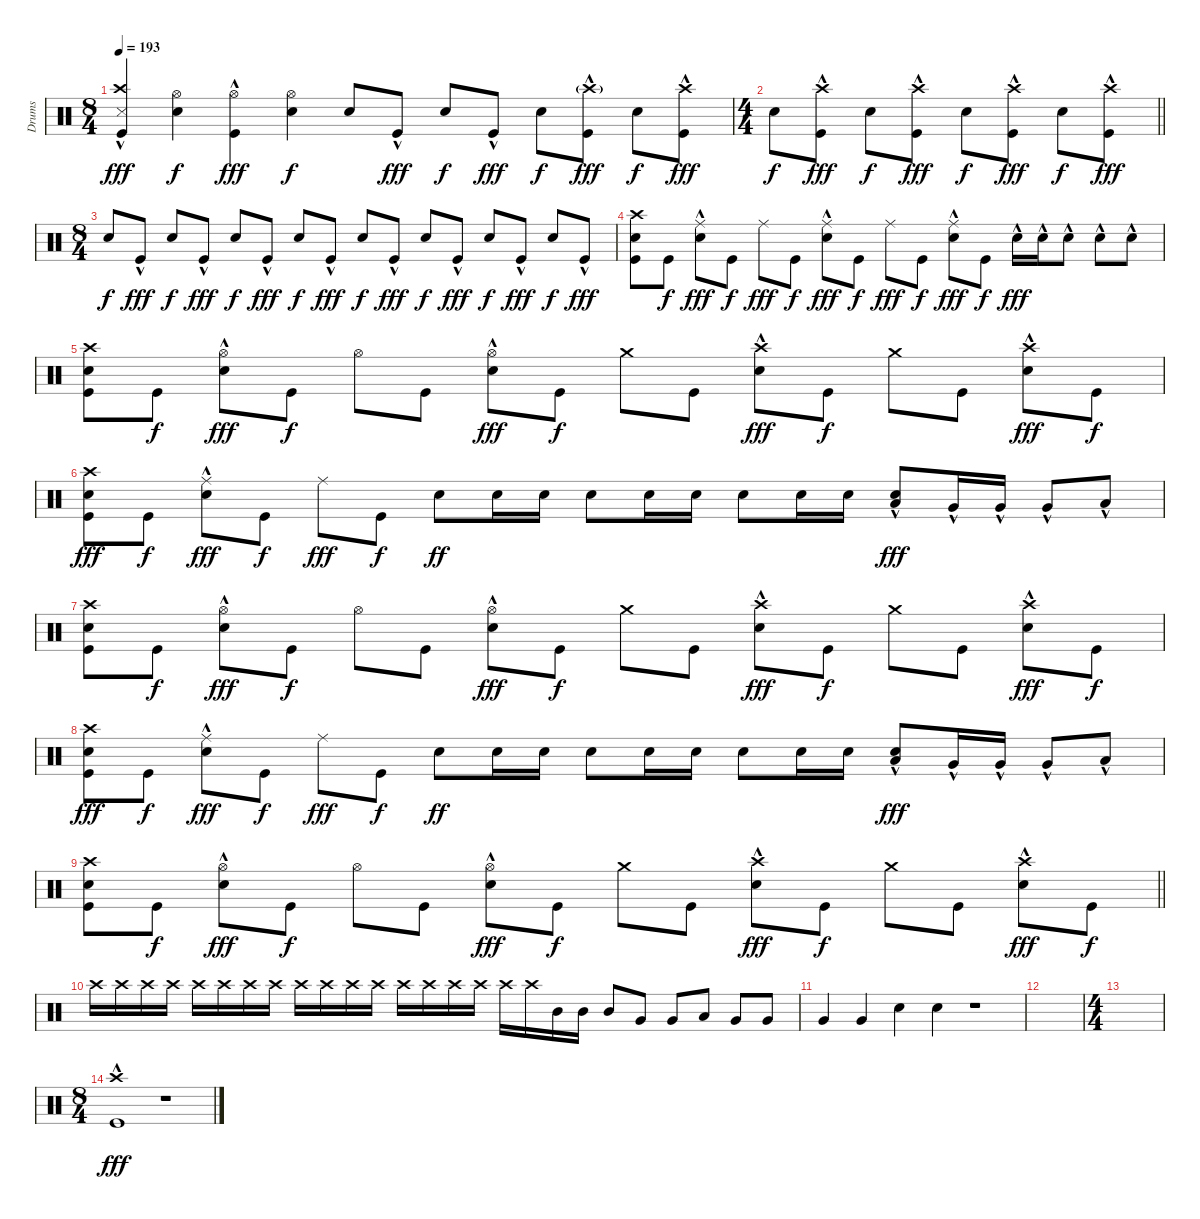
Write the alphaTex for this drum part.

\track ("Drums" "Drums") {instrument percussion}
\staff {score}
\articulation defaults
\ts (8 4)
\tempo 193
\clef neutral
\ks c
("Snare (side stick) 3" "Crash high (hit)" "Kick (hit)"{hac}).4{dy fff} ("Hi-Hat (open)" "Snare (hit) 2").4{dy f} ("Hi-Hat (open)" "Kick (hit)"{hac}).4{dy fff} ("Hi-Hat (open)" "Snare (hit) 2").4{dy f} "Snare (hit) 2".8 "Kick (hit)"{hac}.8{dy fff} "Snare (hit) 2".8{dy f} "Kick (hit)"{hac}.8{dy fff} "Snare (hit) 2".8{dy f} ("Crash high (hit)"{g} "Kick (hit)"{hac}).8{dy fff} "Snare (hit) 2".8{dy f} ("Crash high (hit)" "Kick (hit)"{hac}).8{dy fff} |
\ts (4 4)
\barLineRight lightlight "Snare (hit) 2".8{dy f}
("Crash high (hit)" "Kick (hit)"{hac}).8{dy fff} "Snare (hit) 2".8{dy f} ("Crash high (hit)" "Kick (hit)"{hac}).8{dy fff} "Snare (hit) 2".8{dy f} ("Crash high (hit)" "Kick (hit)"{hac}).8{dy fff} "Snare (hit) 2".8{dy f} ("Crash high (hit)" "Kick (hit)"{hac}).8{dy fff} |
\ts (8 4)
\section ("" "")
"Snare (hit) 2".8{dy f} "Kick (hit)"{hac}.8{dy fff} "Snare (hit) 2".8{dy f} "Kick (hit)"{hac}.8{dy fff} "Snare (hit) 2".8{dy f} "Kick (hit)"{hac}.8{dy fff} "Snare (hit) 2".8{dy f} "Kick (hit)"{hac}.8{dy fff} "Snare (hit) 2".8{dy f} "Kick (hit)"{hac}.8{dy fff} "Snare (hit) 2".8{dy f} "Kick (hit)"{hac}.8{dy fff} "Snare (hit) 2".8{dy f} "Kick (hit)"{hac}.8{dy fff} "Snare (hit) 2".8{dy f} "Kick (hit)"{hac}.8{dy fff} |
("Crash high (hit)" "Snare (hit) 2" "Kick (hit)").8 "Kick (hit)".8{dy f} ("Ride (middle)" "Snare (hit) 2"{hac}).8{dy fff} "Kick (hit)".8{dy f} "Ride (middle)".8{dy fff} "Kick (hit)".8{dy f} ("Ride (middle)" "Snare (hit) 2"{hac}).8{dy fff} "Kick (hit)".8{dy f} "Ride (middle)".8{dy fff} "Kick (hit)".8{dy f} ("Ride (middle)" "Snare (hit) 2"{hac}).8{dy fff} "Kick (hit)".8{dy f} "Snare (hit) 2"{hac}.16{dy fff} "Snare (hit) 2"{hac}.16 "Snare (hit) 2"{hac}.8 "Snare (hit) 2"{hac}.8 "Snare (hit) 2"{hac}.8 |
("Crash high (hit)" "Snare (hit) 2" "Kick (hit)").8 "Kick (hit)".8{dy f} ("Hi-Hat (open)" "Snare (hit) 2"{hac}).8{dy fff} "Kick (hit)".8{dy f} "Hi-Hat (open)".8 "Kick (hit)".8 ("Hi-Hat (open)" "Snare (hit) 2"{hac}).8{dy fff} "Kick (hit)".8{dy f} "Crash medium (hit)".8 "Kick (hit)".8 ("Crash high (hit)" "Snare (hit) 2"{hac}).8{dy fff} "Kick (hit)".8{dy f} "Crash medium (hit)".8 "Kick (hit)".8 ("Crash high (hit)" "Snare (hit) 2"{hac}).8{dy fff} "Kick (hit)".8{dy f} |
("Crash high (hit)" "Snare (hit) 2" "Kick (hit)").8{dy fff} "Kick (hit)".8{dy f} ("Ride (middle)" "Snare (hit) 2"{hac}).8{dy fff} "Kick (hit)".8{dy f} "Ride (middle)".8{dy fff} "Kick (hit)".8{dy f} "Snare (hit) 2".8{dy ff} "Snare (hit) 2".16 "Snare (hit) 2".16 "Snare (hit) 2".8 "Snare (hit) 2".16 "Snare (hit) 2".16 "Snare (hit) 2".8 "Snare (hit) 2".16 "Snare (hit) 2".16 ("Snare (hit) 2" "Low Tom (hit)"{hac}).8{dy fff} "Very Low Tom (hit)"{hac}.16 "Very Low Tom (hit)"{hac}.16 "Very Low Tom (hit)"{hac}.8 "Low Floor Tom (hit)"{hac}.8 |
("Crash high (hit)" "Snare (hit) 2" "Kick (hit)").8 "Kick (hit)".8{dy f} ("Hi-Hat (open)" "Snare (hit) 2"{hac}).8{dy fff} "Kick (hit)".8{dy f} "Hi-Hat (open)".8 "Kick (hit)".8 ("Hi-Hat (open)" "Snare (hit) 2"{hac}).8{dy fff} "Kick (hit)".8{dy f} "Crash medium (hit)".8 "Kick (hit)".8 ("Crash high (hit)" "Snare (hit) 2"{hac}).8{dy fff} "Kick (hit)".8{dy f} "Crash medium (hit)".8 "Kick (hit)".8 ("Crash high (hit)" "Snare (hit) 2"{hac}).8{dy fff} "Kick (hit)".8{dy f} |
("Crash high (hit)" "Snare (hit) 2" "Kick (hit)").8{dy fff} "Kick (hit)".8{dy f} ("Ride (middle)" "Snare (hit) 2"{hac}).8{dy fff} "Kick (hit)".8{dy f} "Ride (middle)".8{dy fff} "Kick (hit)".8{dy f} "Snare (hit) 2".8{dy ff} "Snare (hit) 2".16 "Snare (hit) 2".16 "Snare (hit) 2".8 "Snare (hit) 2".16 "Snare (hit) 2".16 "Snare (hit) 2".8 "Snare (hit) 2".16 "Snare (hit) 2".16 ("Snare (hit) 2" "Low Tom (hit)"{hac}).8{dy fff} "Very Low Tom (hit)"{hac}.16 "Very Low Tom (hit)"{hac}.16 "Very Low Tom (hit)"{hac}.8 "Low Floor Tom (hit)"{hac}.8 |
\barLineRight lightlight
("Crash high (hit)" "Snare (hit) 2" "Kick (hit)").8 "Kick (hit)".8{dy f} ("Hi-Hat (open)" "Snare (hit) 2"{hac}).8{dy fff} "Kick (hit)".8{dy f} "Hi-Hat (open)".8 "Kick (hit)".8 ("Hi-Hat (open)" "Snare (hit) 2"{hac}).8{dy fff} "Kick (hit)".8{dy f} "Crash medium (hit)".8 "Kick (hit)".8 ("Crash high (hit)" "Snare (hit) 2"{hac}).8{dy fff} "Kick (hit)".8{dy f} "Crash medium (hit)".8 "Kick (hit)".8 ("Crash high (hit)" "Snare (hit) 2"{hac}).8{dy fff} "Kick (hit)".8{dy f} |
"Crash high (hit)".16 "Crash high (hit)".16 "Crash high (hit)".16 "Crash high (hit)".16 "Crash high (hit)".16 "Crash high (hit)".16 "Crash high (hit)".16 "Crash high (hit)".16 "Crash high (hit)".16 "Crash high (hit)".16 "Crash high (hit)".16 "Crash high (hit)".16 "Crash high (hit)".16 "Crash high (hit)".16 "Crash high (hit)".16 "Crash high (hit)".16 "Crash high (hit)".16 "Crash high (hit)".16 "Mid Tom (hit)".16 "Mid Tom (hit)".16 "Mid Tom (hit)".8 "Very Low Tom (hit)".8 "Very Low Tom (hit)".8 "Low Tom (hit)".8 "Very Low Tom (hit)".8 "Very Low Tom (hit)".8 |
"Very Low Tom (hit)".4 "Very Low Tom (hit)".4 "Snare (hit) 2".4 "Snare (hit) 2".4 r.1 |
|
\ts (4 4)
|
\ts (8 4)
("Crash high (hit)" "Kick (hit)"{hac}).1{dy fff} r.1
